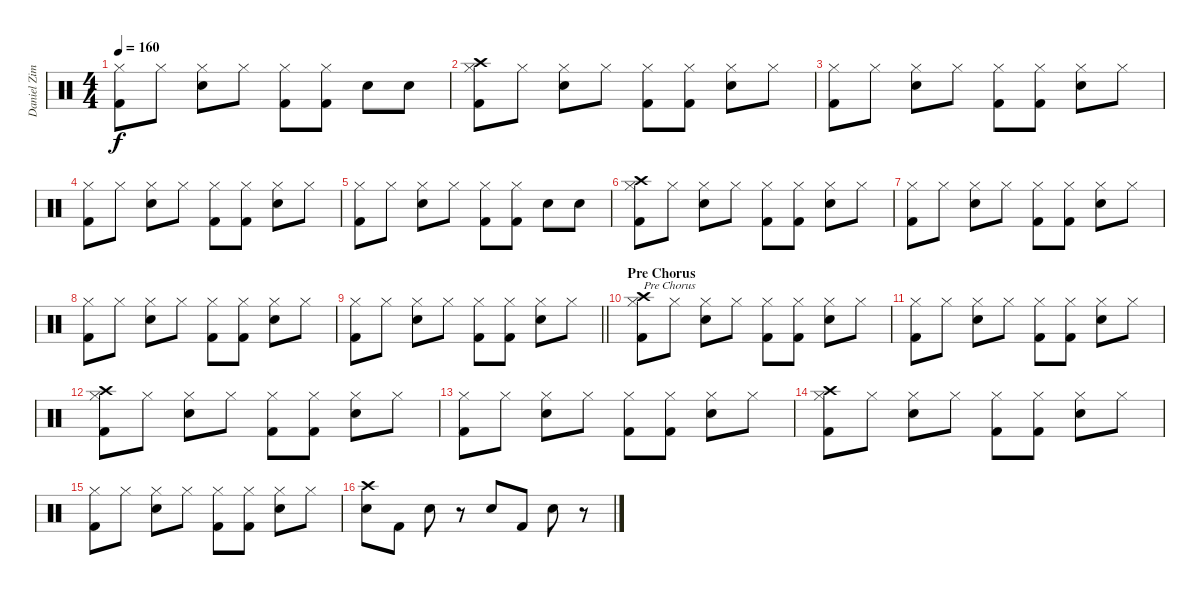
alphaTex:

\track ("Daniel Zimmermann" "Daniel Zim") {instrument percussion}
\staff {score}
\articulation defaults
\ts (4 4)
\tempo 160
\clef neutral
\ks c
("Hi-Hat (closed)" "Kick (hit) 2").8{dy f} "Hi-Hat (closed)".8 ("Hi-Hat (closed)" "Snare (hit) 2").8 "Hi-Hat (closed)".8 ("Hi-Hat (closed)" "Kick (hit) 2").8 ("Hi-Hat (closed)" "Kick (hit) 2").8 "Snare (hit) 2".8 "Snare (hit) 2".8 |
("Hi-Hat (closed)" "Kick (hit) 2" "Crash high (hit)").8 "Hi-Hat (closed)".8 ("Hi-Hat (closed)" "Snare (hit) 2").8 "Hi-Hat (closed)".8 ("Hi-Hat (closed)" "Kick (hit) 2").8 ("Hi-Hat (closed)" "Kick (hit) 2").8 ("Hi-Hat (closed)" "Snare (hit) 2").8 "Hi-Hat (closed)".8 |
("Hi-Hat (closed)" "Kick (hit) 2").8 "Hi-Hat (closed)".8 ("Hi-Hat (closed)" "Snare (hit) 2").8 "Hi-Hat (closed)".8 ("Hi-Hat (closed)" "Kick (hit) 2").8 ("Hi-Hat (closed)" "Kick (hit) 2").8 ("Hi-Hat (closed)" "Snare (hit) 2").8 "Hi-Hat (closed)".8 |
("Hi-Hat (closed)" "Kick (hit) 2").8 "Hi-Hat (closed)".8 ("Hi-Hat (closed)" "Snare (hit) 2").8 "Hi-Hat (closed)".8 ("Hi-Hat (closed)" "Kick (hit) 2").8 ("Hi-Hat (closed)" "Kick (hit) 2").8 ("Hi-Hat (closed)" "Snare (hit) 2").8 "Hi-Hat (closed)".8 |
("Hi-Hat (closed)" "Kick (hit) 2").8 "Hi-Hat (closed)".8 ("Hi-Hat (closed)" "Snare (hit) 2").8 "Hi-Hat (closed)".8 ("Hi-Hat (closed)" "Kick (hit) 2").8 ("Hi-Hat (closed)" "Kick (hit) 2").8 "Snare (hit) 2".8 "Snare (hit) 2".8 |
("Hi-Hat (closed)" "Kick (hit) 2" "Crash high (hit)").8 "Hi-Hat (closed)".8 ("Hi-Hat (closed)" "Snare (hit) 2").8 "Hi-Hat (closed)".8 ("Hi-Hat (closed)" "Kick (hit) 2").8 ("Hi-Hat (closed)" "Kick (hit) 2").8 ("Hi-Hat (closed)" "Snare (hit) 2").8 "Hi-Hat (closed)".8 |
("Hi-Hat (closed)" "Kick (hit) 2").8 "Hi-Hat (closed)".8 ("Hi-Hat (closed)" "Snare (hit) 2").8 "Hi-Hat (closed)".8 ("Hi-Hat (closed)" "Kick (hit) 2").8 ("Hi-Hat (closed)" "Kick (hit) 2").8 ("Hi-Hat (closed)" "Snare (hit) 2").8 "Hi-Hat (closed)".8 |
("Hi-Hat (closed)" "Kick (hit) 2").8 "Hi-Hat (closed)".8 ("Hi-Hat (closed)" "Snare (hit) 2").8 "Hi-Hat (closed)".8 ("Hi-Hat (closed)" "Kick (hit) 2").8 ("Hi-Hat (closed)" "Kick (hit) 2").8 ("Hi-Hat (closed)" "Snare (hit) 2").8 "Hi-Hat (closed)".8 |
\barLineRight lightlight
("Hi-Hat (closed)" "Kick (hit) 2").8 "Hi-Hat (closed)".8 ("Hi-Hat (closed)" "Snare (hit) 2").8 "Hi-Hat (closed)".8 ("Hi-Hat (closed)" "Kick (hit) 2").8 ("Hi-Hat (closed)" "Kick (hit) 2").8 ("Hi-Hat (closed)" "Snare (hit) 2").8 "Hi-Hat (closed)".8 |
\section ("" "Pre Chorus")
("Hi-Hat (closed)" "Kick (hit) 2" "Crash high (hit)").8{txt "Pre Chorus"} "Hi-Hat (closed)".8 ("Hi-Hat (closed)" "Snare (hit) 2").8 "Hi-Hat (closed)".8 ("Hi-Hat (closed)" "Kick (hit) 2").8 ("Hi-Hat (closed)" "Kick (hit) 2").8 ("Hi-Hat (closed)" "Snare (hit) 2").8 "Hi-Hat (closed)".8 |
("Hi-Hat (closed)" "Kick (hit) 2").8 "Hi-Hat (closed)".8 ("Hi-Hat (closed)" "Snare (hit) 2").8 "Hi-Hat (closed)".8 ("Hi-Hat (closed)" "Kick (hit) 2").8 ("Hi-Hat (closed)" "Kick (hit) 2").8 ("Hi-Hat (closed)" "Snare (hit) 2").8 "Hi-Hat (closed)".8 |
("Hi-Hat (closed)" "Kick (hit) 2" "Crash high (hit)").8 "Hi-Hat (closed)".8 ("Hi-Hat (closed)" "Snare (hit) 2").8 "Hi-Hat (closed)".8 ("Hi-Hat (closed)" "Kick (hit) 2").8 ("Hi-Hat (closed)" "Kick (hit) 2").8 ("Hi-Hat (closed)" "Snare (hit) 2").8 "Hi-Hat (closed)".8 |
("Hi-Hat (closed)" "Kick (hit) 2").8 "Hi-Hat (closed)".8 ("Hi-Hat (closed)" "Snare (hit) 2").8 "Hi-Hat (closed)".8 ("Hi-Hat (closed)" "Kick (hit) 2").8 ("Hi-Hat (closed)" "Kick (hit) 2").8 ("Hi-Hat (closed)" "Snare (hit) 2").8 "Hi-Hat (closed)".8 |
("Hi-Hat (closed)" "Kick (hit) 2" "Crash high (hit)").8 "Hi-Hat (closed)".8 ("Hi-Hat (closed)" "Snare (hit) 2").8 "Hi-Hat (closed)".8 ("Hi-Hat (closed)" "Kick (hit) 2").8 ("Hi-Hat (closed)" "Kick (hit) 2").8 ("Hi-Hat (closed)" "Snare (hit) 2").8 "Hi-Hat (closed)".8 |
("Hi-Hat (closed)" "Kick (hit) 2").8 "Hi-Hat (closed)".8 ("Hi-Hat (closed)" "Snare (hit) 2").8 "Hi-Hat (closed)".8 ("Hi-Hat (closed)" "Kick (hit) 2").8 ("Hi-Hat (closed)" "Kick (hit) 2").8 ("Hi-Hat (closed)" "Snare (hit) 2").8 "Hi-Hat (closed)".8 |
("Snare (hit) 2" "Crash high (hit)").8 "Kick (hit) 2".8 "Snare (hit) 2".8 r.8 "Snare (hit) 2".8 "Kick (hit) 2".8 "Snare (hit) 2".8 r.8
